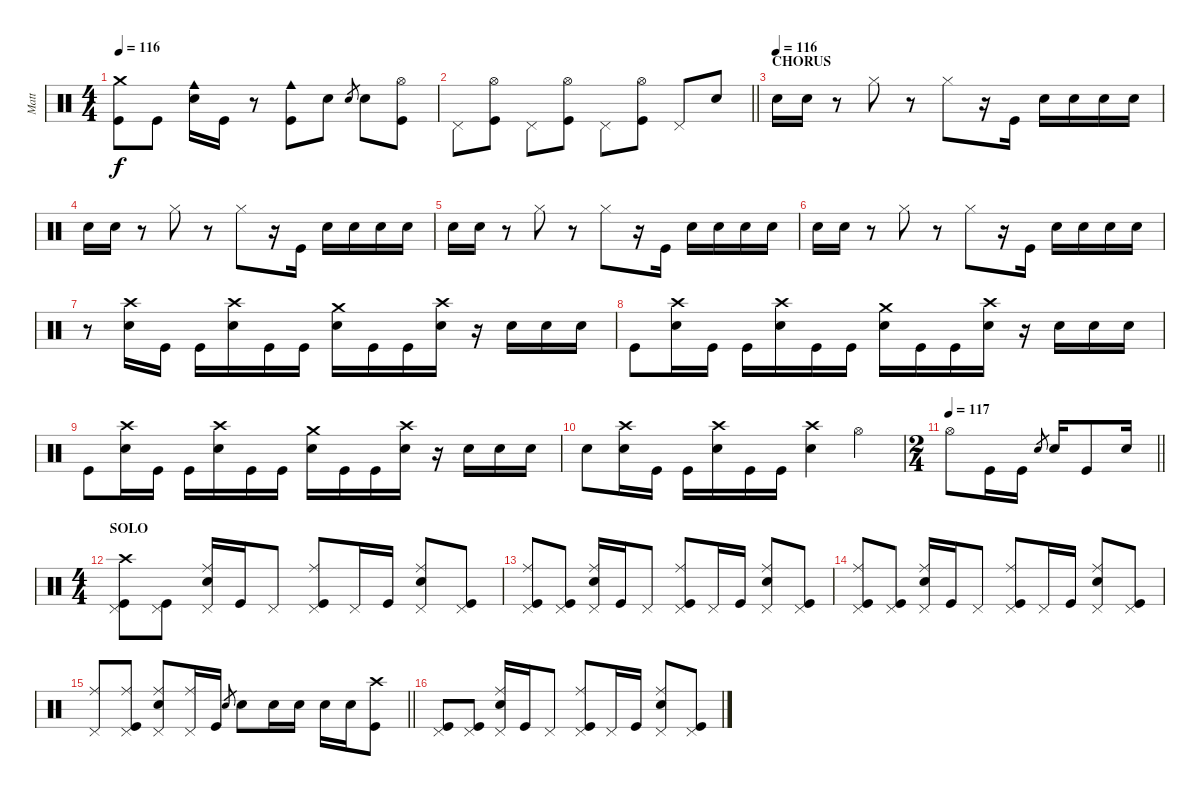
\track ("Matt" "Matt") {instrument percussion}
\staff {score}
\articulation defaults
\ts (4 4)
\tempo 116
\clef neutral
\ks c
("Crash medium (hit)" "Kick (hit)").8{dy f} "Kick (hit)".8 ("Snare (hit) 2" "Cowbell medium (hit)").16 "Kick (hit)".16 r.8 ("Kick (hit)" "Cowbell medium (hit)").8 "Snare (hit) 2".8 "Snare (hit) 2".8{gr} "Snare (hit) 2".8 ("Kick (hit)" "Hi-Hat (open)").8 |
\barLineRight lightlight "Pedal Hi-Hat (hit)".8
("Kick (hit)" "Hi-Hat (open)").8 "Pedal Hi-Hat (hit)".8 ("Kick (hit)" "Hi-Hat (open)").8 "Pedal Hi-Hat (hit)".8 ("Kick (hit)" "Hi-Hat (open)").8 "Pedal Hi-Hat (hit)".8 "Snare (hit) 2".8 |
\section ("" "CHORUS")
\tempo (116)
"Snare (hit) 2".16 "Snare (hit) 2".16 r.8 "Hi-Hat (closed)".8 r.8 "Hi-Hat (closed)".8 r.16 "Kick (hit)".16 "Snare (hit) 2".16 "Snare (hit) 2".16 "Snare (hit) 2".16 "Snare (hit) 2".16 |
"Snare (hit) 2".16 "Snare (hit) 2".16 r.8 "Hi-Hat (closed)".8 r.8 "Hi-Hat (closed)".8 r.16 "Kick (hit)".16 "Snare (hit) 2".16 "Snare (hit) 2".16 "Snare (hit) 2".16 "Snare (hit) 2".16 |
"Snare (hit) 2".16 "Snare (hit) 2".16 r.8 "Hi-Hat (closed)".8 r.8 "Hi-Hat (closed)".8 r.16 "Kick (hit)".16 "Snare (hit) 2".16 "Snare (hit) 2".16 "Snare (hit) 2".16 "Snare (hit) 2".16 |
"Snare (hit) 2".16 "Snare (hit) 2".16 r.8 "Hi-Hat (closed)".8 r.8 "Hi-Hat (closed)".8 r.16 "Kick (hit)".16 "Snare (hit) 2".16 "Snare (hit) 2".16 "Snare (hit) 2".16 "Snare (hit) 2".16 |
r.8 ("Crash high (hit)" "Snare (hit) 2").16 "Kick (hit)".16 "Kick (hit)".16 ("Snare (hit) 2" "Crash high (hit)").16 "Kick (hit)".16 "Kick (hit)".16 ("Crash medium (hit)" "Snare (hit) 2").16 "Kick (hit)".16 "Kick (hit)".16 ("Snare (hit) 2" "Crash high (hit)").16 r.16 "Snare (hit) 2".16 "Snare (hit) 2".16 "Snare (hit) 2".16 |
"Kick (hit)".8 ("Crash high (hit)" "Snare (hit) 2").16 "Kick (hit)".16 "Kick (hit)".16 ("Snare (hit) 2" "Crash high (hit)").16 "Kick (hit)".16 "Kick (hit)".16 ("Crash medium (hit)" "Snare (hit) 2").16 "Kick (hit)".16 "Kick (hit)".16 ("Snare (hit) 2" "Crash high (hit)").16 r.16 "Snare (hit) 2".16 "Snare (hit) 2".16 "Snare (hit) 2".16 |
"Kick (hit)".8 ("Crash high (hit)" "Snare (hit) 2").16 "Kick (hit)".16 "Kick (hit)".16 ("Snare (hit) 2" "Crash high (hit)").16 "Kick (hit)".16 "Kick (hit)".16 ("Crash medium (hit)" "Snare (hit) 2").16 "Kick (hit)".16 "Kick (hit)".16 ("Snare (hit) 2" "Crash high (hit)").16 r.16 "Snare (hit) 2".16 "Snare (hit) 2".16 "Snare (hit) 2".16 |
"Snare (hit) 2".8 ("Crash high (hit)" "Snare (hit) 2").16 "Kick (hit)".16 "Kick (hit)".16 ("Snare (hit) 2" "Crash high (hit)").16 "Kick (hit)".16 "Kick (hit)".16 ("Crash high (hit)" "Snare (hit) 2").4 "Hi-Hat (open)".4 |
\ts (2 4)
\tempo 117
\barLineRight lightlight "Hi-Hat (open)".8 "Kick (hit)".16 "Kick (hit)".16 "Snare (hit) 2".8{gr} "Snare (hit) 2".16 "Kick (hit)".8 "Snare (hit) 2".16
|
\ts (4 4)
\section ("" "SOLO")
("Crash high (hit)" "Kick (hit)" "Pedal Hi-Hat (hit)").8 ("Kick (hit)" "Pedal Hi-Hat (hit)").8 ("Ride (middle)" "Snare (hit) 2" "Pedal Hi-Hat (hit)").16 "Kick (hit)".16 "Pedal Hi-Hat (hit)".8 ("Ride (middle)" "Kick (hit)" "Pedal Hi-Hat (hit)").8 "Pedal Hi-Hat (hit)".16 "Kick (hit)".16 ("Ride (middle)" "Snare (hit) 2" "Pedal Hi-Hat (hit)").8 ("Kick (hit)" "Pedal Hi-Hat (hit)").8 |
("Ride (middle)" "Kick (hit)" "Pedal Hi-Hat (hit)").8 ("Kick (hit)" "Pedal Hi-Hat (hit)").8 ("Ride (middle)" "Snare (hit) 2" "Pedal Hi-Hat (hit)").16 "Kick (hit)".16 "Pedal Hi-Hat (hit)".8 ("Ride (middle)" "Kick (hit)" "Pedal Hi-Hat (hit)").8 "Pedal Hi-Hat (hit)".16 "Kick (hit)".16 ("Ride (middle)" "Snare (hit) 2" "Pedal Hi-Hat (hit)").8 ("Kick (hit)" "Pedal Hi-Hat (hit)").8 |
("Ride (middle)" "Kick (hit)" "Pedal Hi-Hat (hit)").8 ("Kick (hit)" "Pedal Hi-Hat (hit)").8 ("Ride (middle)" "Snare (hit) 2" "Pedal Hi-Hat (hit)").16 "Kick (hit)".16 "Pedal Hi-Hat (hit)".8 ("Ride (middle)" "Kick (hit)" "Pedal Hi-Hat (hit)").8 "Pedal Hi-Hat (hit)".16 "Kick (hit)".16 ("Ride (middle)" "Snare (hit) 2" "Pedal Hi-Hat (hit)").8 ("Kick (hit)" "Pedal Hi-Hat (hit)").8 |
\barLineRight lightlight
("Ride (middle)" "Pedal Hi-Hat (hit)").8 ("Ride (middle)" "Kick (hit)" "Pedal Hi-Hat (hit)").8 ("Ride (middle)" "Snare (hit) 2" "Pedal Hi-Hat (hit)").8 ("Ride (middle)" "Pedal Hi-Hat (hit)").16 "Kick (hit)".16 "Snare (hit) 2".8{gr} "Snare (hit) 2".8 "Snare (hit) 2".16 "Snare (hit) 2".16 "Snare (hit) 2".16 "Snare (hit) 2".16 ("Crash high (hit)" "Kick (hit)").8 |
("Kick (hit)" "Pedal Hi-Hat (hit)").8 ("Kick (hit)" "Pedal Hi-Hat (hit)").8 ("Ride (middle)" "Snare (hit) 2" "Pedal Hi-Hat (hit)").16 "Kick (hit)".16 "Pedal Hi-Hat (hit)".8 ("Ride (middle)" "Kick (hit)" "Pedal Hi-Hat (hit)").8 "Pedal Hi-Hat (hit)".16 "Kick (hit)".16 ("Ride (middle)" "Snare (hit) 2" "Pedal Hi-Hat (hit)").8 ("Kick (hit)" "Pedal Hi-Hat (hit)").8
